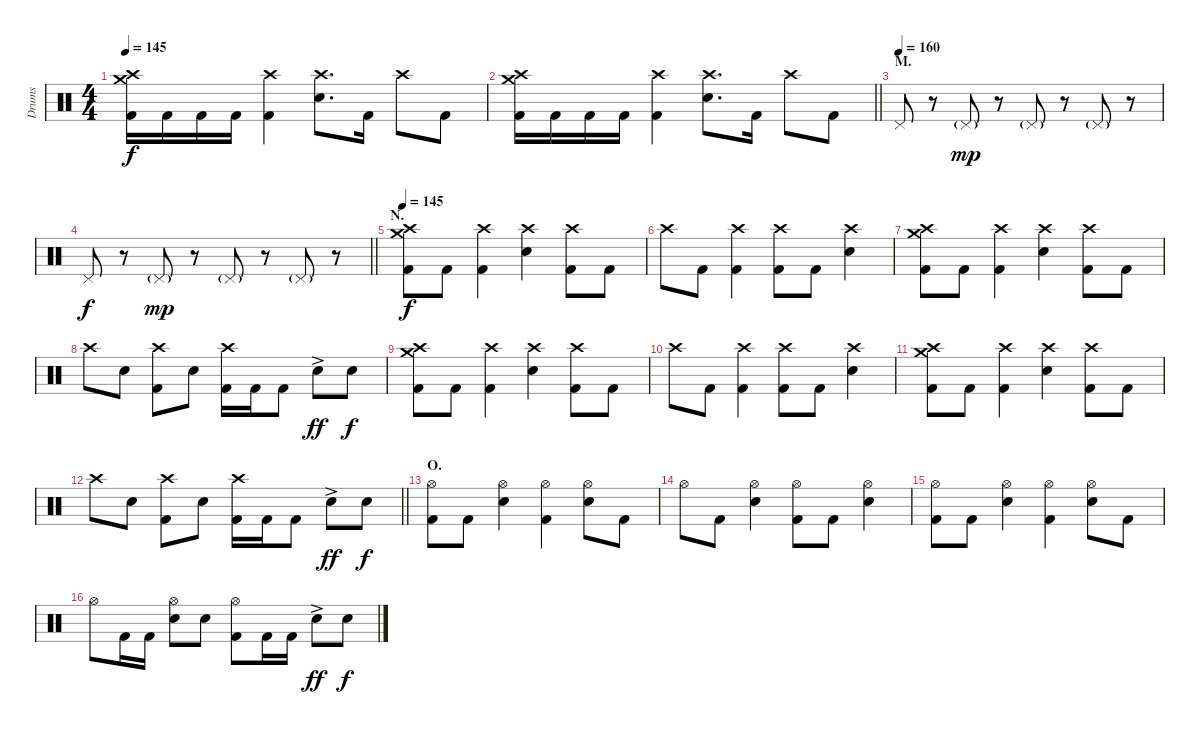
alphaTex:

\track ("Drums" "Drums") {instrument percussion}
\staff {score}
\articulation defaults
\ts (4 4)
\tempo 145
\clef neutral
\ks c
("Crash medium (hit)" "Crash high (hit)" "Kick (hit) 2").16{dy f} "Kick (hit) 2".16 "Kick (hit) 2".16 "Kick (hit) 2".16 ("Crash high (hit)" "Kick (hit) 2").4 ("Crash high (hit)" "Electric Snare (hit)").8{d} "Kick (hit) 2".16 "Crash high (hit)".8 "Kick (hit) 2".8 |
\barLineRight lightlight
("Crash medium (hit)" "Crash high (hit)" "Kick (hit) 2").16 "Kick (hit) 2".16 "Kick (hit) 2".16 "Kick (hit) 2".16 ("Crash high (hit)" "Kick (hit) 2").4 ("Crash high (hit)" "Electric Snare (hit)").8{d} "Kick (hit) 2".16 "Crash high (hit)".8 "Kick (hit) 2".8 |
\section ("" "M.")
\tempo (160)
"Pedal Hi-Hat (hit)".8 r.8 "Pedal Hi-Hat (hit)"{g}.8{dy mp} r.8 "Pedal Hi-Hat (hit)"{g}.8 r.8 "Pedal Hi-Hat (hit)"{g}.8 r.8 |
\barLineRight lightlight "Pedal Hi-Hat (hit)".8{dy f}
r.8 "Pedal Hi-Hat (hit)"{g}.8{dy mp} r.8 "Pedal Hi-Hat (hit)"{g}.8 r.8 "Pedal Hi-Hat (hit)"{g}.8 r.8 |
\section ("" "N.")
\tempo 145
("Crash medium (hit)" "Crash high (hit)" "Kick (hit) 2").8{dy f} "Kick (hit) 2".8 ("Crash high (hit)" "Kick (hit) 2").4 ("Crash high (hit)" "Electric Snare (hit)").4 ("Crash high (hit)" "Kick (hit) 2").8 "Kick (hit) 2".8 |
"Crash high (hit)".8 "Kick (hit) 2".8 ("Crash high (hit)" "Kick (hit) 2").4 ("Crash high (hit)" "Kick (hit) 2").8 "Kick (hit) 2".8 ("Crash high (hit)" "Electric Snare (hit)").4 |
("Crash medium (hit)" "Crash high (hit)" "Kick (hit) 2").8 "Kick (hit) 2".8 ("Crash high (hit)" "Kick (hit) 2").4 ("Crash high (hit)" "Electric Snare (hit)").4 ("Crash high (hit)" "Kick (hit) 2").8 "Kick (hit) 2".8 |
"Crash high (hit)".8 "Electric Snare (hit)".8 ("Crash high (hit)" "Kick (hit) 2").8 "Electric Snare (hit)".8 ("Crash high (hit)" "Kick (hit) 2").16 "Kick (hit) 2".16 "Kick (hit) 2".8 "Electric Snare (hit)"{ac}.8{dy ff} "Electric Snare (hit)".8{dy f} |
("Crash medium (hit)" "Crash high (hit)" "Kick (hit) 2").8 "Kick (hit) 2".8 ("Crash high (hit)" "Kick (hit) 2").4 ("Crash high (hit)" "Electric Snare (hit)").4 ("Crash high (hit)" "Kick (hit) 2").8 "Kick (hit) 2".8 |
"Crash high (hit)".8 "Kick (hit) 2".8 ("Crash high (hit)" "Kick (hit) 2").4 ("Crash high (hit)" "Kick (hit) 2").8 "Kick (hit) 2".8 ("Crash high (hit)" "Electric Snare (hit)").4 |
("Crash medium (hit)" "Crash high (hit)" "Kick (hit) 2").8 "Kick (hit) 2".8 ("Crash high (hit)" "Kick (hit) 2").4 ("Crash high (hit)" "Electric Snare (hit)").4 ("Crash high (hit)" "Kick (hit) 2").8 "Kick (hit) 2".8 |
\barLineRight lightlight "Crash high (hit)".8 "Electric Snare (hit)".8
("Crash high (hit)" "Kick (hit) 2").8 "Electric Snare (hit)".8 ("Crash high (hit)" "Kick (hit) 2").16 "Kick (hit) 2".16 "Kick (hit) 2".8 "Electric Snare (hit)"{ac}.8{dy ff} "Electric Snare (hit)".8{dy f} |
\section ("" "O.")
("Hi-Hat (open)" "Kick (hit) 2").8 "Kick (hit) 2".8 ("Hi-Hat (open)" "Electric Snare (hit)").4 ("Hi-Hat (open)" "Kick (hit) 2").4 ("Hi-Hat (open)" "Electric Snare (hit)").8 "Kick (hit) 2".8 |
"Hi-Hat (open)".8 "Kick (hit) 2".8 ("Hi-Hat (open)" "Electric Snare (hit)").4 ("Hi-Hat (open)" "Kick (hit) 2").8 "Kick (hit) 2".8 ("Hi-Hat (open)" "Electric Snare (hit)").4 |
("Hi-Hat (open)" "Kick (hit) 2").8 "Kick (hit) 2".8 ("Hi-Hat (open)" "Electric Snare (hit)").4 ("Hi-Hat (open)" "Kick (hit) 2").4 ("Hi-Hat (open)" "Electric Snare (hit)").8 "Kick (hit) 2".8 |
"Hi-Hat (open)".8 "Kick (hit) 2".16 "Kick (hit) 2".16 ("Hi-Hat (open)" "Electric Snare (hit)").8 "Electric Snare (hit)".8 ("Hi-Hat (open)" "Kick (hit) 2").8 "Kick (hit) 2".16 "Kick (hit) 2".16 "Electric Snare (hit)"{ac}.8{dy ff} "Electric Snare (hit)".8{dy f}
